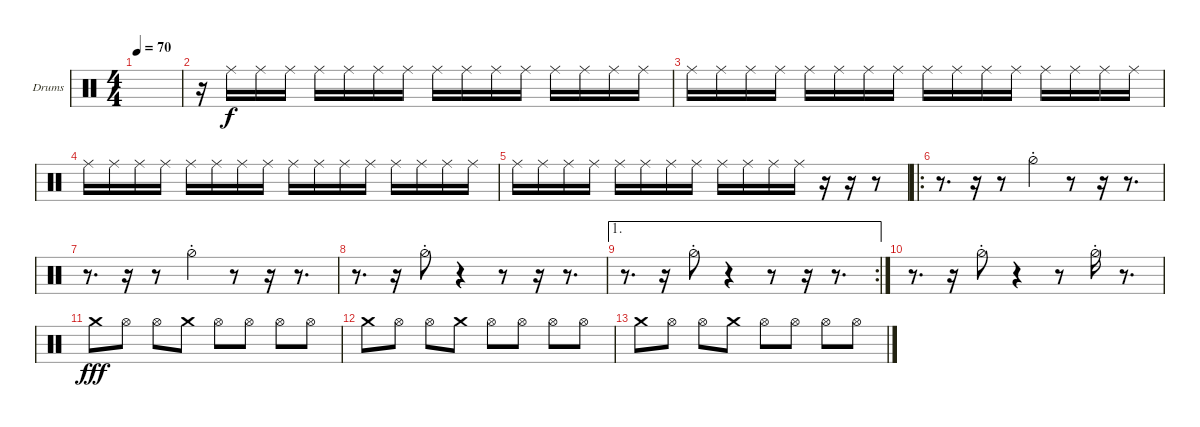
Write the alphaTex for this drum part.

\defaultSystemsLayout 4
\bracketExtendMode groupsimilarinstruments
\firstSystemTrackNameOrientation horizontal
\otherSystemsTrackNameOrientation horizontal
\track ("Drumkit" "Drums") {instrument percussion}
\staff {score}
\articulation defaults
\ts (4 4)
\tempo 70
\clef neutral
\scale
0.474178
\ks c
|
\scale
0.262911 r.16 "Ride (middle)".16 "Ride (middle)".16 "Ride (middle)".16 "Ride (middle)".16 "Ride (middle)".16 "Ride (middle)".16 "Ride (middle)".16 "Ride (middle)".16 "Ride (middle)".16 "Ride (middle)".16 "Ride (middle)".16 "Ride (middle)".16 "Ride (middle)".16 "Ride (middle)".16 "Ride (middle)".16 |
\scale
0.262911 "Ride (middle)".16 "Ride (middle)".16 "Ride (middle)".16 "Ride (middle)".16 "Ride (middle)".16 "Ride (middle)".16 "Ride (middle)".16 "Ride (middle)".16 "Ride (middle)".16 "Ride (middle)".16 "Ride (middle)".16 "Ride (middle)".16 "Ride (middle)".16 "Ride (middle)".16 "Ride (middle)".16 "Ride (middle)".16 |
"Ride (middle)".16 "Ride (middle)".16 "Ride (middle)".16 "Ride (middle)".16 "Ride (middle)".16 "Ride (middle)".16 "Ride (middle)".16 "Ride (middle)".16 "Ride (middle)".16 "Ride (middle)".16 "Ride (middle)".16 "Ride (middle)".16 "Ride (middle)".16 "Ride (middle)".16 "Ride (middle)".16 "Ride (middle)".16 |
"Ride (middle)".16 "Ride (middle)".16 "Ride (middle)".16 "Ride (middle)".16 "Ride (middle)".16 "Ride (middle)".16 "Ride (middle)".16 "Ride (middle)".16 "Ride (middle)".16 "Ride (middle)".16 "Ride (middle)".16 "Ride (middle)".16 r.16 r.16 r.8 |
\ro
r.8{d} r.16 r.8 "Hi-Hat (half)"{st}.4 r.8 r.16 r.8{d} |
r.8{d} r.16 r.8 "Hi-Hat (half)"{st}.4 r.8 r.16 r.8{d} |
r.8{d} r.16 "Hi-Hat (half)"{st}.8 r.4 r.8 r.16 r.8{d} |
\ae 1
\rc 2
r.8{d} r.16 "Hi-Hat (half)"{st}.8 r.4 r.8 r.16 r.8{d} |
r.8{d} r.16 "Hi-Hat (half)"{st}.8 r.4 r.8 "Hi-Hat (half)"{st}.16 r.8{d} |
"Crash medium (hit)".8{dy fff} "Hi-Hat (open)".8 "Hi-Hat (open)".8 "Crash medium (hit)".8 "Hi-Hat (open)".8 "Hi-Hat (open)".8 "Hi-Hat (open)".8 "Hi-Hat (open)".8 |
"Crash medium (hit)".8 "Hi-Hat (open)".8 "Hi-Hat (open)".8 "Crash medium (hit)".8 "Hi-Hat (open)".8 "Hi-Hat (open)".8 "Hi-Hat (open)".8 "Hi-Hat (open)".8 |
"Crash medium (hit)".8 "Hi-Hat (open)".8 "Hi-Hat (open)".8 "Crash medium (hit)".8 "Hi-Hat (open)".8 "Hi-Hat (open)".8 "Hi-Hat (open)".8 "Hi-Hat (open)".8
